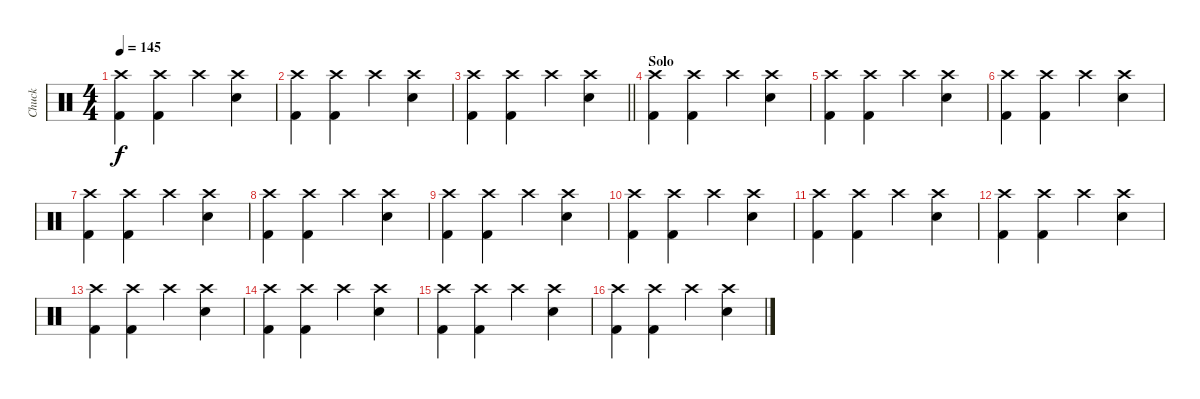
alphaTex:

\track ("Chuck" "Chuck") {instrument percussion}
\staff {score}
\articulation defaults
\ts (4 4)
\tempo 145
\clef neutral
\ks c
("Crash high (hit)" "Kick (hit) 2").4{dy f} ("Crash high (hit)" "Kick (hit) 2").4 "Crash high (hit)".4 ("Crash high (hit)" "Snare (hit) 2").4 |
("Crash high (hit)" "Kick (hit) 2").4 ("Crash high (hit)" "Kick (hit) 2").4 "Crash high (hit)".4 ("Crash high (hit)" "Snare (hit) 2").4 |
\barLineRight lightlight
("Crash high (hit)" "Kick (hit) 2").4 ("Crash high (hit)" "Kick (hit) 2").4 "Crash high (hit)".4 ("Crash high (hit)" "Snare (hit) 2").4 |
\section ("" "Solo")
("Crash high (hit)" "Kick (hit) 2").4 ("Crash high (hit)" "Kick (hit) 2").4 "Crash high (hit)".4 ("Crash high (hit)" "Snare (hit) 2").4 |
("Crash high (hit)" "Kick (hit) 2").4 ("Crash high (hit)" "Kick (hit) 2").4 "Crash high (hit)".4 ("Crash high (hit)" "Snare (hit) 2").4 |
("Crash high (hit)" "Kick (hit) 2").4 ("Crash high (hit)" "Kick (hit) 2").4 "Crash high (hit)".4 ("Crash high (hit)" "Snare (hit) 2").4 |
("Crash high (hit)" "Kick (hit) 2").4 ("Crash high (hit)" "Kick (hit) 2").4 "Crash high (hit)".4 ("Crash high (hit)" "Snare (hit) 2").4 |
("Crash high (hit)" "Kick (hit) 2").4 ("Crash high (hit)" "Kick (hit) 2").4 "Crash high (hit)".4 ("Crash high (hit)" "Snare (hit) 2").4 |
("Crash high (hit)" "Kick (hit) 2").4 ("Crash high (hit)" "Kick (hit) 2").4 "Crash high (hit)".4 ("Crash high (hit)" "Snare (hit) 2").4 |
("Crash high (hit)" "Kick (hit) 2").4 ("Crash high (hit)" "Kick (hit) 2").4 "Crash high (hit)".4 ("Crash high (hit)" "Snare (hit) 2").4 |
("Crash high (hit)" "Kick (hit) 2").4 ("Crash high (hit)" "Kick (hit) 2").4 "Crash high (hit)".4 ("Crash high (hit)" "Snare (hit) 2").4 |
("Crash high (hit)" "Kick (hit) 2").4 ("Crash high (hit)" "Kick (hit) 2").4 "Crash high (hit)".4 ("Crash high (hit)" "Snare (hit) 2").4 |
("Crash high (hit)" "Kick (hit) 2").4 ("Crash high (hit)" "Kick (hit) 2").4 "Crash high (hit)".4 ("Crash high (hit)" "Snare (hit) 2").4 |
("Crash high (hit)" "Kick (hit) 2").4 ("Crash high (hit)" "Kick (hit) 2").4 "Crash high (hit)".4 ("Crash high (hit)" "Snare (hit) 2").4 |
("Crash high (hit)" "Kick (hit) 2").4 ("Crash high (hit)" "Kick (hit) 2").4 "Crash high (hit)".4 ("Crash high (hit)" "Snare (hit) 2").4 |
("Crash high (hit)" "Kick (hit) 2").4 ("Crash high (hit)" "Kick (hit) 2").4 "Crash high (hit)".4 ("Crash high (hit)" "Snare (hit) 2").4
